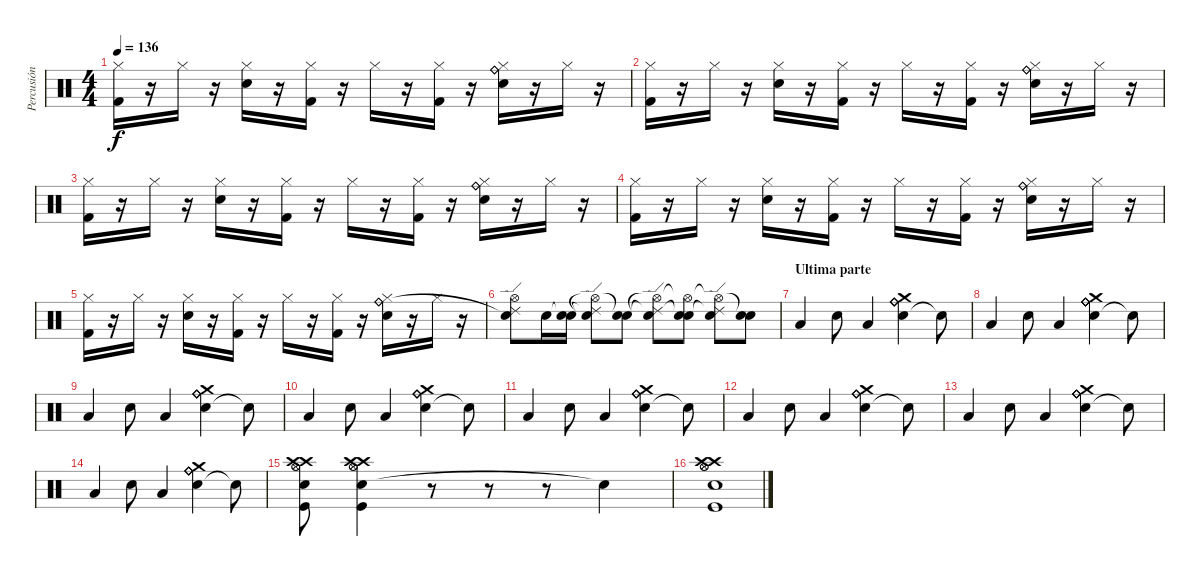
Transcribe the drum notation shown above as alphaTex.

\track ("Percusión" "Percusión") {instrument percussion}
\staff {score}
\articulation defaults
\ts (4 4)
\tempo 136
\clef neutral
\ks c
("Kick (hit) 2" "Hi-Hat (closed)").16{dy f} r.16 "Hi-Hat (closed)".16 r.16 ("Electric Snare (hit)" "Hi-Hat (closed)").16 r.16 ("Kick (hit) 2" "Hi-Hat (closed)").16 r.16 "Hi-Hat (closed)".16 r.16 ("Kick (hit) 2" "Hi-Hat (closed)").16 r.16 ("Electric Snare (hit)" "Hi-Hat (closed)" "Ride (bell)" "Ride (bell)").16 r.16 "Hi-Hat (closed)".16 r.16 |
("Kick (hit) 2" "Hi-Hat (closed)").16 r.16 "Hi-Hat (closed)".16 r.16 ("Electric Snare (hit)" "Hi-Hat (closed)").16 r.16 ("Kick (hit) 2" "Hi-Hat (closed)").16 r.16 "Hi-Hat (closed)".16 r.16 ("Kick (hit) 2" "Hi-Hat (closed)").16 r.16 ("Electric Snare (hit)" "Hi-Hat (closed)" "Ride (bell)" "Ride (bell)").16 r.16 "Hi-Hat (closed)".16 r.16 |
("Kick (hit) 2" "Hi-Hat (closed)").16 r.16 "Hi-Hat (closed)".16 r.16 ("Electric Snare (hit)" "Hi-Hat (closed)").16 r.16 ("Kick (hit) 2" "Hi-Hat (closed)").16 r.16 "Hi-Hat (closed)".16 r.16 ("Kick (hit) 2" "Hi-Hat (closed)").16 r.16 ("Electric Snare (hit)" "Hi-Hat (closed)" "Ride (bell)" "Ride (bell)").16 r.16 "Hi-Hat (closed)".16 r.16 |
("Kick (hit) 2" "Hi-Hat (closed)").16 r.16 "Hi-Hat (closed)".16 r.16 ("Electric Snare (hit)" "Hi-Hat (closed)").16 r.16 ("Kick (hit) 2" "Hi-Hat (closed)").16 r.16 "Hi-Hat (closed)".16 r.16 ("Kick (hit) 2" "Hi-Hat (closed)").16 r.16 ("Electric Snare (hit)" "Hi-Hat (closed)" "Ride (bell)" "Ride (bell)").16 r.16 "Hi-Hat (closed)".16 r.16 |
("Kick (hit) 2" "Hi-Hat (closed)").16 r.16 "Hi-Hat (closed)".16 r.16 ("Electric Snare (hit)" "Hi-Hat (closed)").16 r.16 ("Kick (hit) 2" "Hi-Hat (closed)").16 r.16 "Hi-Hat (closed)".16 r.16 ("Kick (hit) 2" "Hi-Hat (closed)").16 r.16 ("Electric Snare (hit)" "Hi-Hat (closed)" "Ride (bell)" "Ride (bell)").16 r.16 "Hi-Hat (closed)".16 r.16 |
("Hi-Hat (open)" "Ride (edge) 2" "Electric Snare (hit)"{t}).8 "Electric Snare (hit)".16 ("Snare (hit)"{t} "Electric Snare (hit)").16 ("Hi-Hat (open)"{t} "Ride (edge) 2"{t} "Electric Snare (hit)").8 ("Snare (hit)"{t} "Electric Snare (hit)").8 ("Hi-Hat (open)"{t} "Ride (edge) 2"{t} "Electric Snare (hit)").8 ("Hi-Hat (open)"{t} "Snare (hit)"{t} "Electric Snare (hit)").8 ("Hi-Hat (open)"{t} "Ride (edge) 2"{t} "Electric Snare (hit)").8 ("Snare (hit)"{t} "Electric Snare (hit)").8 |
\section ("" "Ultima parte")
"Low Tom (hit)".4 "Electric Snare (hit)".8 "Low Tom (hit)".4 ("Electric Snare (hit)" "Crash medium (hit)" "Ride (bell)" "Ride (bell)" "Ride (bell)" "Ride (bell)").4 "Snare (hit)"{t}.8 |
"Low Tom (hit)".4 "Electric Snare (hit)".8 "Low Tom (hit)".4 ("Electric Snare (hit)" "Crash medium (hit)" "Ride (bell)" "Ride (bell)" "Ride (bell)" "Ride (bell)").4 "Snare (hit)"{t}.8 |
"Low Tom (hit)".4 "Electric Snare (hit)".8 "Low Tom (hit)".4 ("Electric Snare (hit)" "Crash medium (hit)" "Ride (bell)" "Ride (bell)" "Ride (bell)" "Ride (bell)").4 "Snare (hit)"{t}.8 |
"Low Tom (hit)".4 "Electric Snare (hit)".8 "Low Tom (hit)".4 ("Electric Snare (hit)" "Crash medium (hit)" "Ride (bell)" "Ride (bell)" "Ride (bell)" "Ride (bell)").4 "Snare (hit)"{t}.8 |
"Low Tom (hit)".4 "Electric Snare (hit)".8 "Low Tom (hit)".4 ("Electric Snare (hit)" "Crash medium (hit)" "Ride (bell)" "Ride (bell)" "Ride (bell)" "Ride (bell)").4 "Snare (hit)"{t}.8 |
"Low Tom (hit)".4 "Electric Snare (hit)".8 "Low Tom (hit)".4 ("Electric Snare (hit)" "Crash medium (hit)" "Ride (bell)" "Ride (bell)" "Ride (bell)" "Ride (bell)").4 "Snare (hit)"{t}.8 |
"Low Tom (hit)".4 "Electric Snare (hit)".8 "Low Tom (hit)".4 ("Electric Snare (hit)" "Crash medium (hit)" "Ride (bell)" "Ride (bell)" "Ride (bell)" "Ride (bell)").4 "Snare (hit)"{t}.8 |
"Low Tom (hit)".4 "Electric Snare (hit)".8 "Low Tom (hit)".4 ("Electric Snare (hit)" "Crash medium (hit)" "Ride (bell)" "Ride (bell)" "Ride (bell)" "Ride (bell)").4 "Snare (hit)"{t}.8 |
("Kick (hit)" "Snare (hit) 2" "Hi-Hat (open)" "Hi-Hat (open)" "Crash high (hit)" "Crash high (hit)").8 ("Snare (hit) 2" "Kick (hit)" "Hi-Hat (open)" "Hi-Hat (open)" "Crash high (hit)" "Crash high (hit)").4 r.8 r.8 r.8 "Snare (hit)"{t}.4 |
("Kick (hit)" "Snare (hit) 2" "Hi-Hat (open)" "Hi-Hat (open)" "Crash high (hit)" "Crash high (hit)").1
